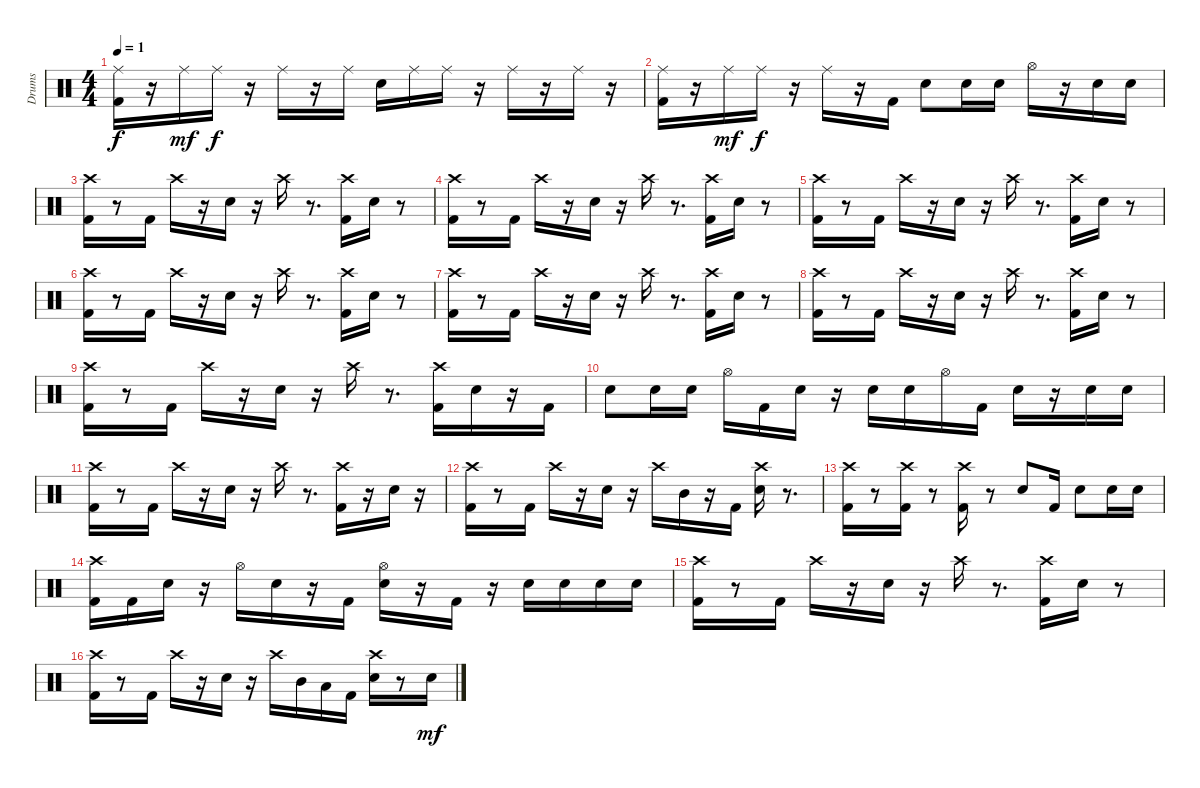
\track ("Drums" "Drums") {instrument percussion}
\staff {score}
\articulation defaults
\ts (4 4)
\tempo 1
\clef neutral
\ks c
("Kick (hit) 2" "Ride (middle)").16{dy f} r.16 "Ride (middle)".16{dy mf} "Ride (middle)".16{dy f} r.16 "Ride (middle)".16 r.16 "Ride (middle)".16 "Snare (hit) 2".16 "Ride (middle)".16 "Ride (middle)".16 r.16 "Ride (middle)".16 r.16 "Ride (middle)".16 r.16 |
("Kick (hit) 2" "Ride (middle)").16 r.16 "Ride (middle)".16{dy mf} "Ride (middle)".16{dy f} r.16 "Ride (middle)".16 r.16 "Kick (hit) 2".16 "Snare (hit) 2".8 "Snare (hit) 2".16 "Snare (hit) 2".16 "Hi-Hat (open)".16 r.16 "Snare (hit) 2".16 "Snare (hit) 2".16 |
("Kick (hit) 2" "Crash high (hit)").16 r.8 "Kick (hit) 2".16 "Crash high (hit)".16 r.16 "Snare (hit) 2".16 r.16 "Crash high (hit)".16 r.8{d} ("Kick (hit) 2" "Crash high (hit)").16 "Snare (hit) 2".16 r.8 |
("Kick (hit) 2" "Crash high (hit)").16 r.8 "Kick (hit) 2".16 "Crash high (hit)".16 r.16 "Snare (hit) 2".16 r.16 "Crash high (hit)".16 r.8{d} ("Kick (hit) 2" "Crash high (hit)").16 "Snare (hit) 2".16 r.8 |
("Kick (hit) 2" "Crash high (hit)").16 r.8 "Kick (hit) 2".16 "Crash high (hit)".16 r.16 "Snare (hit) 2".16 r.16 "Crash high (hit)".16 r.8{d} ("Kick (hit) 2" "Crash high (hit)").16 "Snare (hit) 2".16 r.8 |
("Kick (hit) 2" "Crash high (hit)").16 r.8 "Kick (hit) 2".16 "Crash high (hit)".16 r.16 "Snare (hit) 2".16 r.16 "Crash high (hit)".16 r.8{d} ("Kick (hit) 2" "Crash high (hit)").16 "Snare (hit) 2".16 r.8 |
("Kick (hit) 2" "Crash high (hit)").16 r.8 "Kick (hit) 2".16 "Crash high (hit)".16 r.16 "Snare (hit) 2".16 r.16 "Crash high (hit)".16 r.8{d} ("Kick (hit) 2" "Crash high (hit)").16 "Snare (hit) 2".16 r.8 |
("Kick (hit) 2" "Crash high (hit)").16 r.8 "Kick (hit) 2".16 "Crash high (hit)".16 r.16 "Snare (hit) 2".16 r.16 "Crash high (hit)".16 r.8{d} ("Kick (hit) 2" "Crash high (hit)").16 "Snare (hit) 2".16 r.8 |
("Kick (hit) 2" "Crash high (hit)").16 r.8 "Kick (hit) 2".16 "Crash high (hit)".16 r.16 "Snare (hit) 2".16 r.16 "Crash high (hit)".16 r.8{d} ("Kick (hit) 2" "Crash high (hit)").16 "Snare (hit) 2".16 r.16 "Kick (hit) 2".16 |
"Snare (hit) 2".8 "Snare (hit) 2".16 "Snare (hit) 2".16 "Hi-Hat (open)".16 "Kick (hit) 2".16 "Snare (hit) 2".16 r.16 "Snare (hit) 2".16 "Snare (hit) 2".16 "Hi-Hat (open)".16 "Kick (hit) 2".16 "Snare (hit) 2".16 r.16 "Snare (hit) 2".16 "Snare (hit) 2".16 |
("Kick (hit) 2" "Crash high (hit)").16 r.8 "Kick (hit) 2".16 "Crash high (hit)".16 r.16 "Snare (hit) 2".16 r.16 "Crash high (hit)".16 r.8{d} ("Kick (hit) 2" "Crash high (hit)").16 r.16 "Snare (hit) 2".16 r.16 |
("Kick (hit) 2" "Crash high (hit)").16 r.8 "Kick (hit) 2".16 "Crash high (hit)".16 r.16 "Snare (hit) 2".16 r.16 "Crash high (hit)".16 "Mid Tom (hit)".16 r.16 "Kick (hit) 2".16 ("Snare (hit) 2" "Crash high (hit)").16 r.8{d} |
("Kick (hit) 2" "Crash high (hit)").16 r.8 ("Kick (hit) 2" "Crash high (hit)").16 r.8 ("Kick (hit) 2" "Crash high (hit)").16 r.8 "Snare (hit) 2".8 "Kick (hit) 2".16 "Snare (hit) 2".8 "Snare (hit) 2".16 "Snare (hit) 2".16 |
("Kick (hit) 2" "Crash high (hit)").16 "Kick (hit) 2".16 "Snare (hit) 2".16 r.16 "Hi-Hat (open)".16 "Snare (hit) 2".16 r.16 "Kick (hit) 2".16 ("Snare (hit) 2" "Hi-Hat (open)").16 r.16 "Kick (hit) 2".16 r.16 "Snare (hit) 2".16 "Snare (hit) 2".16 "Snare (hit) 2".16 "Snare (hit) 2".16 |
("Kick (hit) 2" "Crash high (hit)").16 r.8 "Kick (hit) 2".16 "Crash high (hit)".16 r.16 "Snare (hit) 2".16 r.16 "Crash high (hit)".16 r.8{d} ("Kick (hit) 2" "Crash high (hit)").16 "Snare (hit) 2".16 r.8 |
("Kick (hit) 2" "Crash high (hit)").16 r.8 "Kick (hit) 2".16 "Crash high (hit)".16 r.16 "Snare (hit) 2".16 r.16 "Crash high (hit)".16 "Mid Tom (hit)".16 "Low Floor Tom (hit)".16 "Kick (hit) 2".16 ("Snare (hit) 2" "Crash high (hit)").16 r.8 "Snare (hit) 2".16{dy mf}
